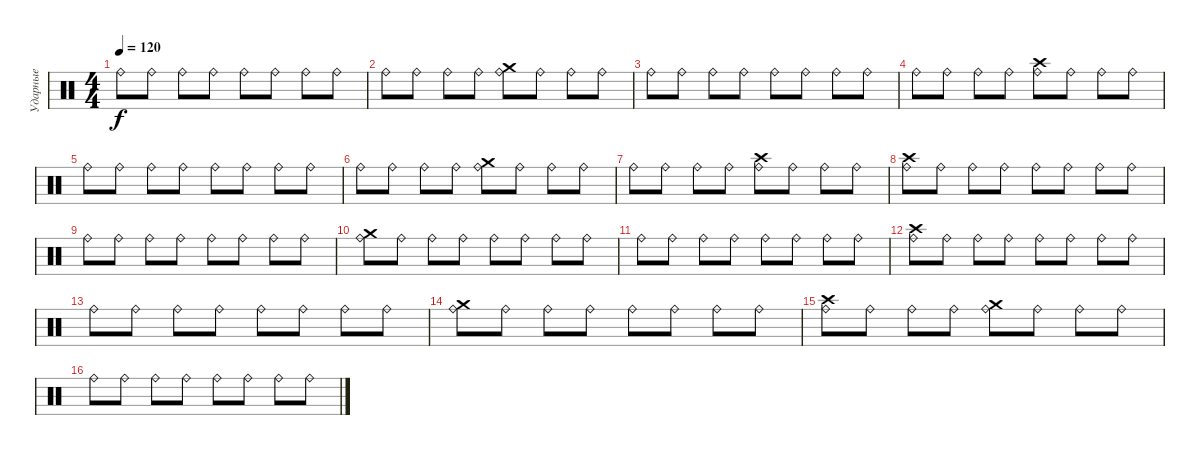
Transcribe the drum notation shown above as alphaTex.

\track ("Ударные" "Ударные") {instrument percussion}
\staff {score}
\articulation defaults
\ts (4 4)
\tempo 120
\clef neutral
\ks c "Ride (bell)".8{dy f} "Ride (bell)".8 "Ride (bell)".8 "Ride (bell)".8 "Ride (bell)".8 "Ride (bell)".8 "Ride (bell)".8 "Ride (bell)".8
|
"Ride (bell)".8 "Ride (bell)".8 "Ride (bell)".8 "Ride (bell)".8 ("Crash medium (hit)" "Ride (bell)").8 "Ride (bell)".8 "Ride (bell)".8 "Ride (bell)".8 |
"Ride (bell)".8 "Ride (bell)".8 "Ride (bell)".8 "Ride (bell)".8 "Ride (bell)".8 "Ride (bell)".8 "Ride (bell)".8 "Ride (bell)".8 |
"Ride (bell)".8 "Ride (bell)".8 "Ride (bell)".8 "Ride (bell)".8 ("Crash high (hit)" "Ride (bell)").8 "Ride (bell)".8 "Ride (bell)".8 "Ride (bell)".8 |
"Ride (bell)".8 "Ride (bell)".8 "Ride (bell)".8 "Ride (bell)".8 "Ride (bell)".8 "Ride (bell)".8 "Ride (bell)".8 "Ride (bell)".8 |
"Ride (bell)".8 "Ride (bell)".8 "Ride (bell)".8 "Ride (bell)".8 ("Crash medium (hit)" "Ride (bell)").8 "Ride (bell)".8 "Ride (bell)".8 "Ride (bell)".8 |
"Ride (bell)".8 "Ride (bell)".8 "Ride (bell)".8 "Ride (bell)".8 ("Crash high (hit)" "Ride (bell)").8 "Ride (bell)".8 "Ride (bell)".8 "Ride (bell)".8 |
("Crash high (hit)" "Ride (bell)").8 "Ride (bell)".8 "Ride (bell)".8 "Ride (bell)".8 "Ride (bell)".8 "Ride (bell)".8 "Ride (bell)".8 "Ride (bell)".8 |
"Ride (bell)".8 "Ride (bell)".8 "Ride (bell)".8 "Ride (bell)".8 "Ride (bell)".8 "Ride (bell)".8 "Ride (bell)".8 "Ride (bell)".8 |
("Crash medium (hit)" "Ride (bell)").8 "Ride (bell)".8 "Ride (bell)".8 "Ride (bell)".8 "Ride (bell)".8 "Ride (bell)".8 "Ride (bell)".8 "Ride (bell)".8 |
"Ride (bell)".8 "Ride (bell)".8 "Ride (bell)".8 "Ride (bell)".8 "Ride (bell)".8 "Ride (bell)".8 "Ride (bell)".8 "Ride (bell)".8 |
("Crash high (hit)" "Ride (bell)").8 "Ride (bell)".8 "Ride (bell)".8 "Ride (bell)".8 "Ride (bell)".8 "Ride (bell)".8 "Ride (bell)".8 "Ride (bell)".8 |
"Ride (bell)".8 "Ride (bell)".8 "Ride (bell)".8 "Ride (bell)".8 "Ride (bell)".8 "Ride (bell)".8 "Ride (bell)".8 "Ride (bell)".8 |
("Crash medium (hit)" "Ride (bell)").8 "Ride (bell)".8 "Ride (bell)".8 "Ride (bell)".8 "Ride (bell)".8 "Ride (bell)".8 "Ride (bell)".8 "Ride (bell)".8 |
("Crash high (hit)" "Ride (bell)").8 "Ride (bell)".8 "Ride (bell)".8 "Ride (bell)".8 ("Crash medium (hit)" "Ride (bell)").8 "Ride (bell)".8 "Ride (bell)".8 "Ride (bell)".8 |
"Ride (bell)".8 "Ride (bell)".8 "Ride (bell)".8 "Ride (bell)".8 "Ride (bell)".8 "Ride (bell)".8 "Ride (bell)".8 "Ride (bell)".8
